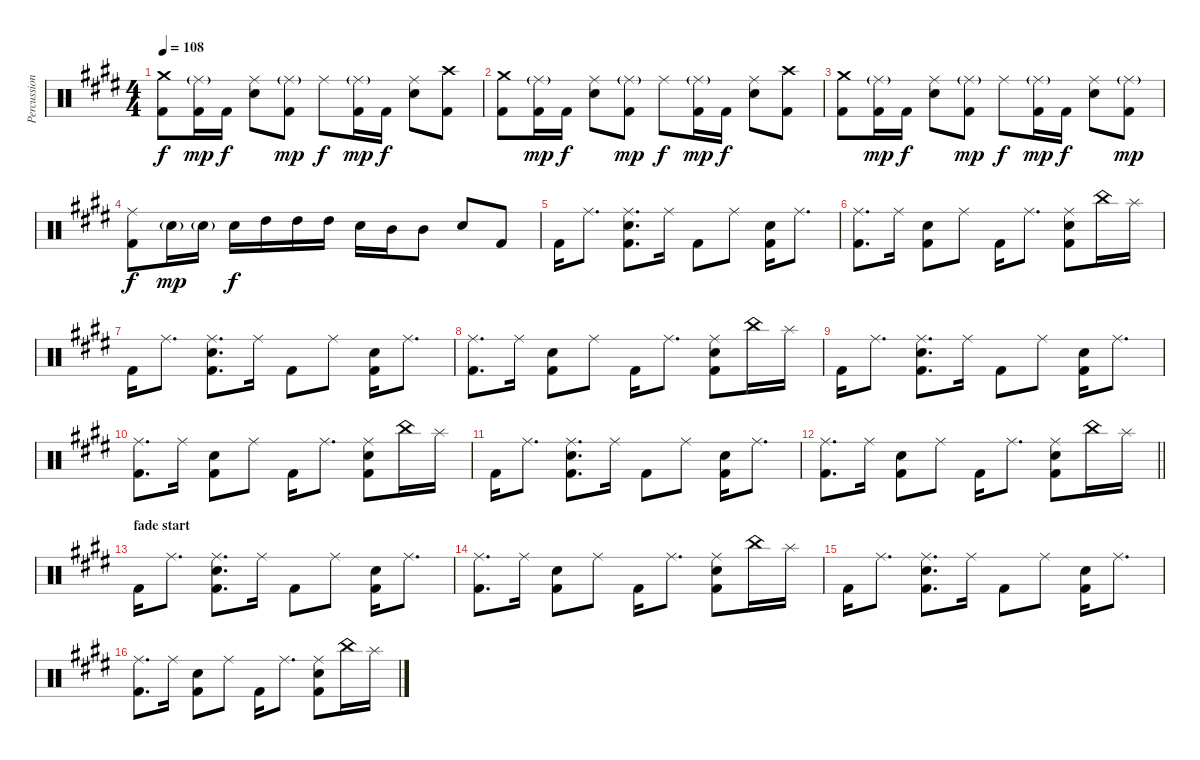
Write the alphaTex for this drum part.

\track ("Percussion" "Percussion") {instrument percussion}
\staff {score}
\articulation defaults
\ts (4 4)
\tempo 108
\clef neutral
\ks e
("Crash medium (hit)" "Kick (hit) 2").8{dy f} ("Ride (middle)"{g} "Kick (hit) 2").16{dy mp} "Kick (hit) 2".16{dy f} ("Ride (middle)" "Electric Snare (hit)").8 ("Ride (middle)"{g} "Kick (hit) 2").8{dy mp} "Ride (middle)".8{dy f} ("Ride (middle)"{g} "Kick (hit) 2").16{dy mp} "Kick (hit) 2".16{dy f} ("Ride (middle)" "Electric Snare (hit)").8 ("Crash high (hit)" "Kick (hit) 2").8 |
("Crash medium (hit)" "Kick (hit) 2").8 ("Ride (middle)"{g} "Kick (hit) 2").16{dy mp} "Kick (hit) 2".16{dy f} ("Ride (middle)" "Electric Snare (hit)").8 ("Ride (middle)"{g} "Kick (hit) 2").8{dy mp} "Ride (middle)".8{dy f} ("Ride (middle)"{g} "Kick (hit) 2").16{dy mp} "Kick (hit) 2".16{dy f} ("Ride (middle)" "Electric Snare (hit)").8 ("Crash high (hit)" "Kick (hit) 2").8 |
("Crash medium (hit)" "Kick (hit) 2").8 ("Ride (middle)"{g} "Kick (hit) 2").16{dy mp} "Kick (hit) 2".16{dy f} ("Ride (middle)" "Electric Snare (hit)").8 ("Ride (middle)"{g} "Kick (hit) 2").8{dy mp} "Ride (middle)".8{dy f} ("Ride (middle)"{g} "Kick (hit) 2").16{dy mp} "Kick (hit) 2".16{dy f} ("Ride (middle)" "Electric Snare (hit)").8 ("Ride (middle)"{g} "Kick (hit) 2").8{dy mp} |
("Ride (middle)" "Kick (hit) 2").8{dy f} "Electric Snare (hit)"{g}.16{dy mp} "Electric Snare (hit)"{g}.16 "Electric Snare (hit)".16{dy f} "High Tom (hit)".16 "High Tom (hit)".16 "High Tom (hit)".16 "Electric Snare (hit)".16 "Mid Tom (hit)".16 "Mid Tom (hit)".8 "Electric Snare (hit)".8 "Kick (hit) 2".8 |
"Kick (hit) 2".16 "Ride (middle)".8{d} ("Ride (middle)" "Electric Snare (hit)" "Kick (hit) 2").8{d} "Ride (middle)".16 "Kick (hit) 2".8 "Ride (middle)".8 ("Electric Snare (hit)" "Kick (hit) 2").16 "Ride (middle)".8{d} |
("Ride (middle)" "Kick (hit) 2").8{d} "Ride (middle)".16 ("Electric Snare (hit)" "Kick (hit) 2").8 "Ride (middle)".8 "Kick (hit) 2".16 "Ride (middle)".8{d} ("Ride (middle)" "Electric Snare (hit)" "Kick (hit) 2").8 "China (hit)".16 "Splash (hit)".16 |
"Kick (hit) 2".16 "Ride (middle)".8{d} ("Ride (middle)" "Electric Snare (hit)" "Kick (hit) 2").8{d} "Ride (middle)".16 "Kick (hit) 2".8 "Ride (middle)".8 ("Electric Snare (hit)" "Kick (hit) 2").16 "Ride (middle)".8{d} |
("Ride (middle)" "Kick (hit) 2").8{d} "Ride (middle)".16 ("Electric Snare (hit)" "Kick (hit) 2").8 "Ride (middle)".8 "Kick (hit) 2".16 "Ride (middle)".8{d} ("Ride (middle)" "Electric Snare (hit)" "Kick (hit) 2").8 "China (hit)".16 "Splash (hit)".16 |
"Kick (hit) 2".16 "Ride (middle)".8{d} ("Ride (middle)" "Electric Snare (hit)" "Kick (hit) 2").8{d} "Ride (middle)".16 "Kick (hit) 2".8 "Ride (middle)".8 ("Electric Snare (hit)" "Kick (hit) 2").16 "Ride (middle)".8{d} |
("Ride (middle)" "Kick (hit) 2").8{d} "Ride (middle)".16 ("Electric Snare (hit)" "Kick (hit) 2").8 "Ride (middle)".8 "Kick (hit) 2".16 "Ride (middle)".8{d} ("Ride (middle)" "Electric Snare (hit)" "Kick (hit) 2").8 "China (hit)".16 "Splash (hit)".16 |
"Kick (hit) 2".16 "Ride (middle)".8{d} ("Ride (middle)" "Electric Snare (hit)" "Kick (hit) 2").8{d} "Ride (middle)".16 "Kick (hit) 2".8 "Ride (middle)".8 ("Electric Snare (hit)" "Kick (hit) 2").16 "Ride (middle)".8{d} |
\barLineRight lightlight
("Ride (middle)" "Kick (hit) 2").8{d} "Ride (middle)".16 ("Electric Snare (hit)" "Kick (hit) 2").8 "Ride (middle)".8 "Kick (hit) 2".16 "Ride (middle)".8{d} ("Ride (middle)" "Electric Snare (hit)" "Kick (hit) 2").8 "China (hit)".16 "Splash (hit)".16 |
\section ("" "fade start")
"Kick (hit) 2".16 "Ride (middle)".8{d} ("Ride (middle)" "Electric Snare (hit)" "Kick (hit) 2").8{d} "Ride (middle)".16 "Kick (hit) 2".8 "Ride (middle)".8 ("Electric Snare (hit)" "Kick (hit) 2").16 "Ride (middle)".8{d} |
("Ride (middle)" "Kick (hit) 2").8{d} "Ride (middle)".16 ("Electric Snare (hit)" "Kick (hit) 2").8 "Ride (middle)".8 "Kick (hit) 2".16 "Ride (middle)".8{d} ("Ride (middle)" "Electric Snare (hit)" "Kick (hit) 2").8 "China (hit)".16 "Splash (hit)".16 |
"Kick (hit) 2".16 "Ride (middle)".8{d} ("Ride (middle)" "Electric Snare (hit)" "Kick (hit) 2").8{d} "Ride (middle)".16 "Kick (hit) 2".8 "Ride (middle)".8 ("Electric Snare (hit)" "Kick (hit) 2").16 "Ride (middle)".8{d} |
("Ride (middle)" "Kick (hit) 2").8{d} "Ride (middle)".16 ("Electric Snare (hit)" "Kick (hit) 2").8 "Ride (middle)".8 "Kick (hit) 2".16 "Ride (middle)".8{d} ("Ride (middle)" "Electric Snare (hit)" "Kick (hit) 2").8 "China (hit)".16 "Splash (hit)".16
